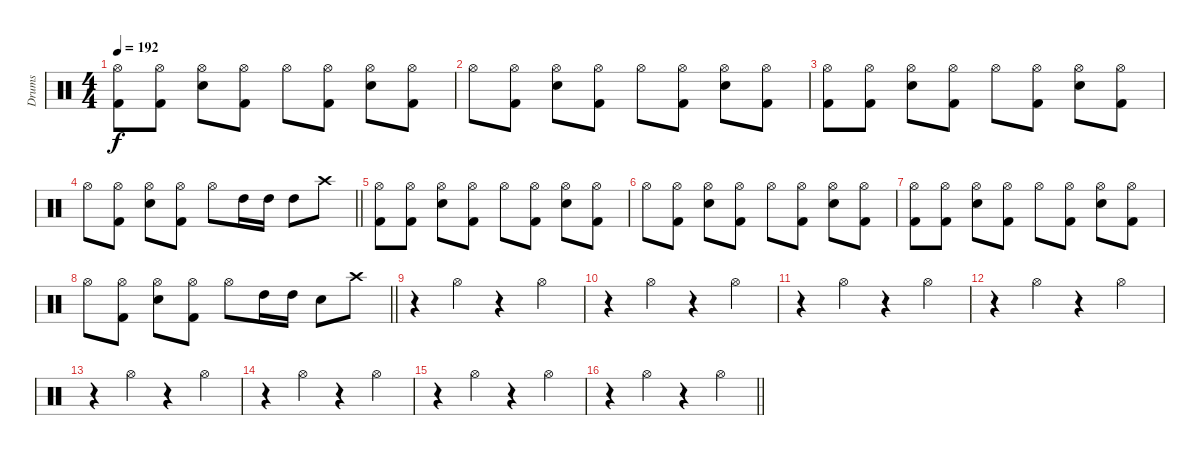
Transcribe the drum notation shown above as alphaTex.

\track ("Drums" "Drums") {instrument percussion}
\staff {score}
\articulation defaults
\ts (4 4)
\section ("" "")
\tempo 192
\clef neutral
\ks c
("Hi-Hat (open)" "Kick (hit) 2").8{dy f} ("Hi-Hat (open)" "Kick (hit) 2").8 ("Hi-Hat (open)" "Electric Snare (hit)").8 ("Hi-Hat (open)" "Kick (hit) 2").8 "Hi-Hat (open)".8 ("Hi-Hat (open)" "Kick (hit) 2").8 ("Hi-Hat (open)" "Electric Snare (hit)").8 ("Hi-Hat (open)" "Kick (hit) 2").8 |
"Hi-Hat (open)".8 ("Hi-Hat (open)" "Kick (hit) 2").8 ("Hi-Hat (open)" "Electric Snare (hit)").8 ("Hi-Hat (open)" "Kick (hit) 2").8 "Hi-Hat (open)".8 ("Hi-Hat (open)" "Kick (hit) 2").8 ("Hi-Hat (open)" "Electric Snare (hit)").8 ("Hi-Hat (open)" "Kick (hit) 2").8 |
("Hi-Hat (open)" "Kick (hit) 2").8 ("Hi-Hat (open)" "Kick (hit) 2").8 ("Hi-Hat (open)" "Electric Snare (hit)").8 ("Hi-Hat (open)" "Kick (hit) 2").8 "Hi-Hat (open)".8 ("Hi-Hat (open)" "Kick (hit) 2").8 ("Hi-Hat (open)" "Electric Snare (hit)").8 ("Hi-Hat (open)" "Kick (hit) 2").8 |
\barLineRight lightlight "Hi-Hat (open)".8
("Hi-Hat (open)" "Kick (hit) 2").8 ("Hi-Hat (open)" "Electric Snare (hit)").8 ("Hi-Hat (open)" "Kick (hit) 2").8 "Hi-Hat (open)".8 "High Tom (hit)".16 "High Tom (hit)".16 "High Tom (hit)".8 "Crash high (hit)".8 |
("Hi-Hat (open)" "Kick (hit) 2").8 ("Hi-Hat (open)" "Kick (hit) 2").8 ("Hi-Hat (open)" "Electric Snare (hit)").8 ("Hi-Hat (open)" "Kick (hit) 2").8 "Hi-Hat (open)".8 ("Hi-Hat (open)" "Kick (hit) 2").8 ("Hi-Hat (open)" "Electric Snare (hit)").8 ("Hi-Hat (open)" "Kick (hit) 2").8 |
"Hi-Hat (open)".8 ("Hi-Hat (open)" "Kick (hit) 2").8 ("Hi-Hat (open)" "Electric Snare (hit)").8 ("Hi-Hat (open)" "Kick (hit) 2").8 "Hi-Hat (open)".8 ("Hi-Hat (open)" "Kick (hit) 2").8 ("Hi-Hat (open)" "Electric Snare (hit)").8 ("Hi-Hat (open)" "Kick (hit) 2").8 |
("Hi-Hat (open)" "Kick (hit) 2").8 ("Hi-Hat (open)" "Kick (hit) 2").8 ("Hi-Hat (open)" "Electric Snare (hit)").8 ("Hi-Hat (open)" "Kick (hit) 2").8 "Hi-Hat (open)".8 ("Hi-Hat (open)" "Kick (hit) 2").8 ("Hi-Hat (open)" "Electric Snare (hit)").8 ("Hi-Hat (open)" "Kick (hit) 2").8 |
\barLineRight lightlight "Hi-Hat (open)".8
("Hi-Hat (open)" "Kick (hit) 2").8 ("Hi-Hat (open)" "Electric Snare (hit)").8 ("Hi-Hat (open)" "Kick (hit) 2").8 "Hi-Hat (open)".8 "High Tom (hit)".16 "High Tom (hit)".16 "Electric Snare (hit)".8 "Crash high (hit)".8 |
\section ("" "")
r.4 "Hi-Hat (open)".4 r.4 "Hi-Hat (open)".4 |
r.4 "Hi-Hat (open)".4 r.4 "Hi-Hat (open)".4 |
r.4 "Hi-Hat (open)".4 r.4 "Hi-Hat (open)".4 |
r.4 "Hi-Hat (open)".4 r.4 "Hi-Hat (open)".4 |
r.4 "Hi-Hat (open)".4 r.4 "Hi-Hat (open)".4 |
r.4 "Hi-Hat (open)".4 r.4 "Hi-Hat (open)".4 |
r.4 "Hi-Hat (open)".4 r.4 "Hi-Hat (open)".4 |
\barLineRight lightlight
r.4 "Hi-Hat (open)".4 r.4 "Hi-Hat (open)".4
